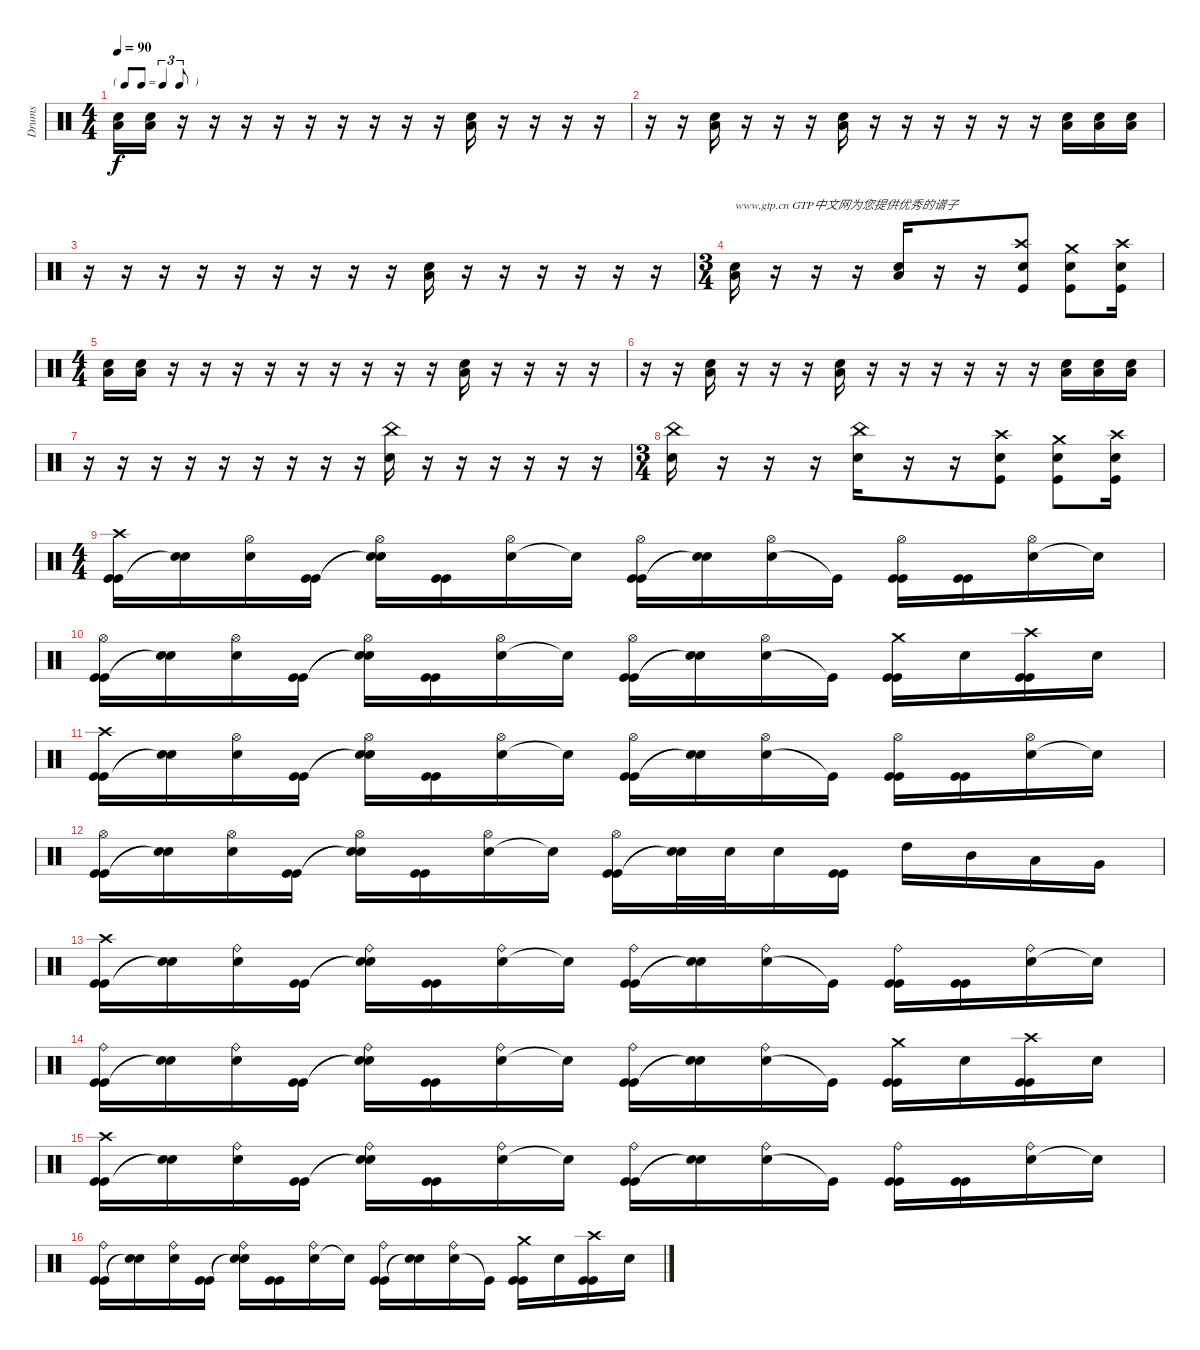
\track ("Drums" "Drums") {instrument percussion}
\staff {score}
\articulation defaults
\ts (4 4)
\tf triplet8th
\tempo 90
\clef neutral
\ks c
("Snare (hit) 2" "Low Floor Tom (hit)").16{dy f} ("Snare (hit) 2" "Low Floor Tom (hit)").16 r.16 r.16 r.16 r.16 r.16 r.16 r.16 r.16 r.16 ("Snare (hit) 2" "Low Floor Tom (hit)").16 r.16 r.16 r.16 r.16 |
r.16 r.16 ("Snare (hit) 2" "Low Floor Tom (hit)").16 r.16 r.16 r.16 ("Snare (hit) 2" "Low Floor Tom (hit)").16 r.16 r.16 r.16 r.16 r.16 r.16 ("Snare (hit) 2" "Low Floor Tom (hit)").16 ("Snare (hit) 2" "Low Floor Tom (hit)").16 ("Snare (hit) 2" "Low Floor Tom (hit)").16 |
r.16 r.16 r.16 r.16 r.16 r.16 r.16 r.16 r.16 ("Snare (hit) 2" "Low Floor Tom (hit)").16 r.16 r.16 r.16 r.16 r.16 r.16 |
\ts (3 4)
("Low Floor Tom (hit)" "Snare (hit) 2").16{txt "www.gtp.cn GTP中文网为您提供优秀的谱子"} r.16 r.16 r.16 ("Low Floor Tom (hit)" "Snare (hit) 2").16 r.16 r.16 ("Crash high (hit)" "Snare (hit) 2" "Kick (hit)").8 ("Crash medium (hit)" "Snare (hit) 2" "Kick (hit)").8 ("Crash high (hit)" "Snare (hit) 2" "Kick (hit)").16 |
\ts (4 4)
("Snare (hit) 2" "Low Floor Tom (hit)").16 ("Snare (hit) 2" "Low Floor Tom (hit)").16 r.16 r.16 r.16 r.16 r.16 r.16 r.16 r.16 r.16 ("Snare (hit) 2" "Low Floor Tom (hit)").16 r.16 r.16 r.16 r.16 |
r.16 r.16 ("Snare (hit) 2" "Low Floor Tom (hit)").16 r.16 r.16 r.16 ("Snare (hit) 2" "Low Floor Tom (hit)").16 r.16 r.16 r.16 r.16 r.16 r.16 ("Snare (hit) 2" "Low Floor Tom (hit)").16 ("Snare (hit) 2" "Low Floor Tom (hit)").16 ("Snare (hit) 2" "Low Floor Tom (hit)").16 |
r.16 r.16 r.16 r.16 r.16 r.16 r.16 r.16 r.16 ("Snare (hit) 2" "China (hit)").16 r.16 r.16 r.16 r.16 r.16 r.16 |
\ts (3 4)
("China (hit)" "Snare (hit) 2").16 r.16 r.16 r.16 ("China (hit)" "Snare (hit) 2").16 r.16 r.16 ("Crash high (hit)" "Snare (hit) 2" "Kick (hit)").8 ("Crash medium (hit)" "Snare (hit) 2" "Kick (hit)").8 ("Crash high (hit)" "Snare (hit) 2" "Kick (hit)").16 |
\ts (4 4)
("Kick (hit)" "Kick (hit)" "Crash high (hit)").16 ("Snare (hit) 2"{t} "Snare (hit)"{t}).16 ("Snare (hit) 2" "Hi-Hat (open)").16 ("Kick (hit)" "Kick (hit)").16 ("Snare (hit)"{t} "Snare (hit) 2"{t} "Hi-Hat (open)").16 ("Kick (hit)" "Kick (hit)").16 ("Snare (hit) 2" "Hi-Hat (open)").16 "Snare (hit)"{t}.16 ("Kick (hit)" "Kick (hit)" "Hi-Hat (open)").16 ("Snare (hit) 2"{t} "Snare (hit)"{t}).16 ("Snare (hit) 2" "Hi-Hat (open)").16 "Kick (hit)"{t}.16 ("Kick (hit)" "Kick (hit)" "Hi-Hat (open)").16 ("Kick (hit)" "Kick (hit)").16 ("Snare (hit) 2" "Hi-Hat (open)").16 "Snare (hit)"{t}.16 |
("Kick (hit)" "Kick (hit)" "Hi-Hat (open)").16 ("Snare (hit) 2"{t} "Snare (hit)"{t}).16 ("Snare (hit) 2" "Hi-Hat (open)").16 ("Kick (hit)" "Kick (hit)").16 ("Snare (hit)"{t} "Snare (hit) 2"{t} "Hi-Hat (open)").16 ("Kick (hit)" "Kick (hit)").16 ("Snare (hit) 2" "Hi-Hat (open)").16 "Snare (hit)"{t}.16 ("Kick (hit)" "Kick (hit)" "Hi-Hat (open)").16 ("Snare (hit) 2"{t} "Snare (hit)"{t}).16 ("Snare (hit) 2" "Hi-Hat (open)").16 "Kick (hit)"{t}.16 ("Kick (hit)" "Kick (hit)" "Crash medium (hit)").16 "Snare (hit) 2".16 ("Kick (hit)" "Kick (hit)" "Crash high (hit)").16 "Snare (hit) 2".16 |
("Kick (hit)" "Kick (hit)" "Crash high (hit)").16 ("Snare (hit) 2"{t} "Snare (hit)"{t}).16 ("Snare (hit) 2" "Hi-Hat (open)").16 ("Kick (hit)" "Kick (hit)").16 ("Snare (hit)"{t} "Snare (hit) 2"{t} "Hi-Hat (open)").16 ("Kick (hit)" "Kick (hit)").16 ("Snare (hit) 2" "Hi-Hat (open)").16 "Snare (hit)"{t}.16 ("Kick (hit)" "Kick (hit)" "Hi-Hat (open)").16 ("Snare (hit) 2"{t} "Snare (hit)"{t}).16 ("Snare (hit) 2" "Hi-Hat (open)").16 "Kick (hit)"{t}.16 ("Kick (hit)" "Kick (hit)" "Hi-Hat (open)").16 ("Kick (hit)" "Kick (hit)").16 ("Snare (hit) 2" "Hi-Hat (open)").16 "Snare (hit)"{t}.16 |
("Kick (hit)" "Kick (hit)" "Hi-Hat (open)").16 ("Snare (hit) 2"{t} "Snare (hit)"{t}).16 ("Snare (hit) 2" "Hi-Hat (open)").16 ("Kick (hit)" "Kick (hit)").16 ("Snare (hit)"{t} "Snare (hit) 2"{t} "Hi-Hat (open)").16 ("Kick (hit)" "Kick (hit)").16 ("Snare (hit) 2" "Hi-Hat (open)").16 "Snare (hit)"{t}.16 ("Kick (hit)" "Kick (hit)" "Hi-Hat (open)").16 ("Snare (hit) 2"{t} "Snare (hit) 2"{t}).32 "Snare (hit) 2".32 "Snare (hit) 2".16 ("Kick (hit)" "Kick (hit)").16 "High Tom (hit)".16 "Mid Tom (hit)".16 "Low Tom (hit)".16 "Very Low Tom (hit)".16 |
("Kick (hit)" "Kick (hit)" "Crash high (hit)").16 ("Snare (hit) 2"{t} "Snare (hit)"{t}).16 ("Snare (hit) 2" "Ride (bell)").16 ("Kick (hit)" "Kick (hit)").16 ("Snare (hit)"{t} "Snare (hit) 2"{t} "Ride (bell)").16 ("Kick (hit)" "Kick (hit)").16 ("Snare (hit) 2" "Ride (bell)").16 "Snare (hit)"{t}.16 ("Kick (hit)" "Kick (hit)" "Ride (bell)").16 ("Snare (hit) 2"{t} "Snare (hit)"{t}).16 ("Snare (hit) 2" "Ride (bell)").16 "Kick (hit)"{t}.16 ("Kick (hit)" "Kick (hit)" "Ride (bell)").16 ("Kick (hit)" "Kick (hit)").16 ("Snare (hit) 2" "Ride (bell)").16 "Snare (hit)"{t}.16 |
("Kick (hit)" "Kick (hit)" "Ride (bell)").16 ("Snare (hit) 2"{t} "Snare (hit)"{t}).16 ("Snare (hit) 2" "Ride (bell)").16 ("Kick (hit)" "Kick (hit)").16 ("Snare (hit)"{t} "Snare (hit) 2"{t} "Ride (bell)").16 ("Kick (hit)" "Kick (hit)").16 ("Snare (hit) 2" "Ride (bell)").16 "Snare (hit)"{t}.16 ("Kick (hit)" "Kick (hit)" "Ride (bell)").16 ("Snare (hit) 2"{t} "Snare (hit)"{t}).16 ("Snare (hit) 2" "Ride (bell)").16 "Kick (hit)"{t}.16 ("Kick (hit)" "Kick (hit)" "Crash medium (hit)").16 "Snare (hit) 2".16 ("Kick (hit)" "Kick (hit)" "Crash high (hit)").16 "Snare (hit) 2".16 |
("Kick (hit)" "Kick (hit)" "Crash high (hit)").16 ("Snare (hit) 2"{t} "Snare (hit)"{t}).16 ("Snare (hit) 2" "Ride (bell)").16 ("Kick (hit)" "Kick (hit)").16 ("Snare (hit)"{t} "Snare (hit) 2"{t} "Ride (bell)").16 ("Kick (hit)" "Kick (hit)").16 ("Snare (hit) 2" "Ride (bell)").16 "Snare (hit)"{t}.16 ("Kick (hit)" "Kick (hit)" "Ride (bell)").16 ("Snare (hit) 2"{t} "Snare (hit)"{t}).16 ("Snare (hit) 2" "Ride (bell)").16 "Kick (hit)"{t}.16 ("Kick (hit)" "Kick (hit)" "Ride (bell)").16 ("Kick (hit)" "Kick (hit)").16 ("Snare (hit) 2" "Ride (bell)").16 "Snare (hit)"{t}.16 |
("Kick (hit)" "Kick (hit)" "Ride (bell)").16 ("Snare (hit) 2"{t} "Snare (hit)"{t}).16 ("Snare (hit) 2" "Ride (bell)").16 ("Kick (hit)" "Kick (hit)").16 ("Snare (hit)"{t} "Snare (hit) 2"{t} "Ride (bell)").16 ("Kick (hit)" "Kick (hit)").16 ("Snare (hit) 2" "Ride (bell)").16 "Snare (hit)"{t}.16 ("Kick (hit)" "Kick (hit)" "Ride (bell)").16 ("Snare (hit) 2"{t} "Snare (hit)"{t}).16 ("Snare (hit) 2" "Ride (bell)").16 "Kick (hit)"{t}.16 ("Kick (hit)" "Kick (hit)" "Crash medium (hit)").16 "Snare (hit) 2".16 ("Kick (hit)" "Kick (hit)" "Crash high (hit)").16 "Snare (hit) 2".16
